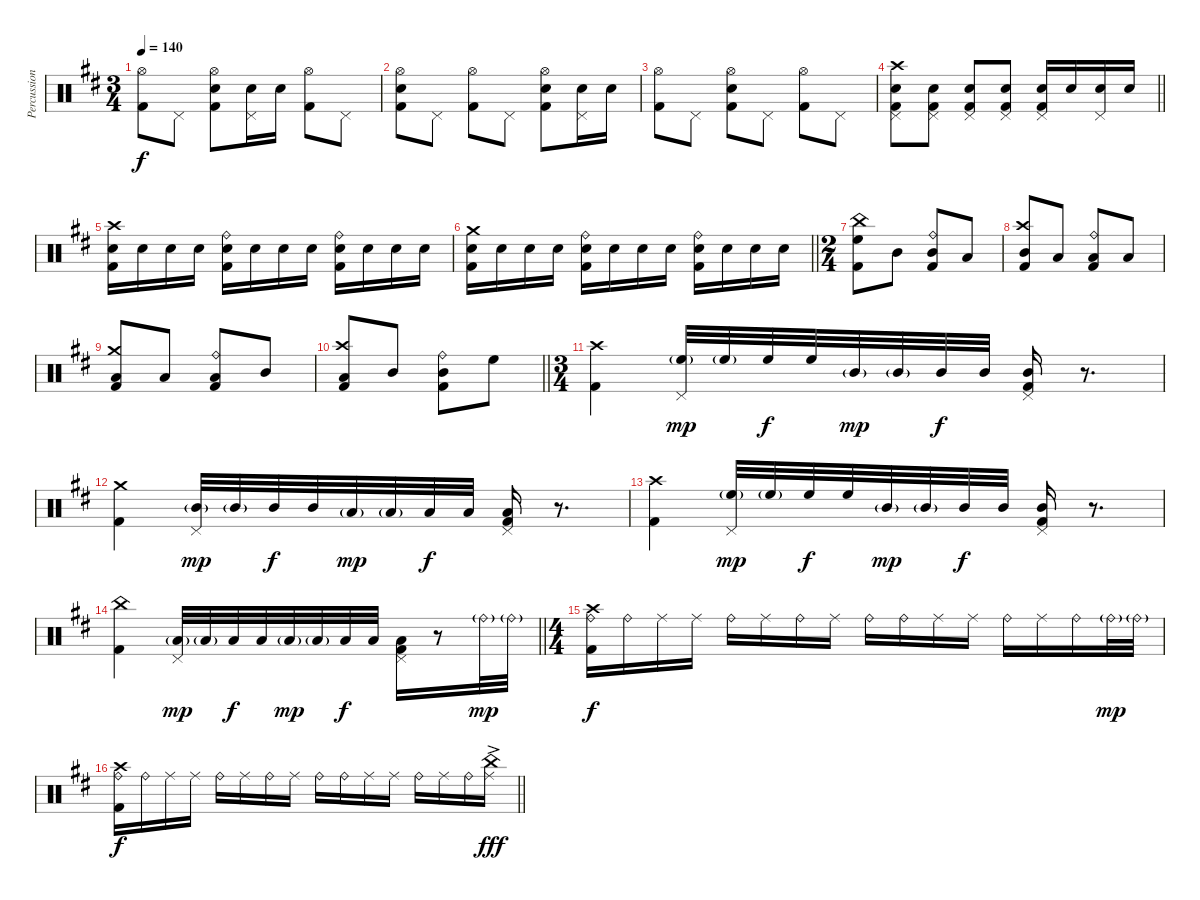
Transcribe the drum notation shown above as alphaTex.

\track ("Percussions" "Percussion") {instrument percussion}
\staff {score}
\articulation defaults
\ts (3 4)
\tempo 140
\clef neutral
\ks d
("Hi-Hat (open)" "Kick (hit) 2").8{dy f} "Pedal Hi-Hat (hit)".8 ("Hi-Hat (open)" "Snare (hit) 2" "Kick (hit) 2").8 ("Pedal Hi-Hat (hit)" "Snare (hit) 2").16 "Snare (hit) 2".16 ("Hi-Hat (open)" "Kick (hit) 2").8 "Pedal Hi-Hat (hit)".8 |
("Hi-Hat (open)" "Snare (hit) 2" "Kick (hit) 2").8 "Pedal Hi-Hat (hit)".8 ("Hi-Hat (open)" "Kick (hit) 2").8 "Pedal Hi-Hat (hit)".8 ("Hi-Hat (open)" "Snare (hit) 2" "Kick (hit) 2").8 ("Pedal Hi-Hat (hit)" "Snare (hit) 2").16 "Snare (hit) 2".16 |
("Hi-Hat (open)" "Kick (hit) 2").8 "Pedal Hi-Hat (hit)".8 ("Hi-Hat (open)" "Snare (hit) 2" "Kick (hit) 2").8 "Pedal Hi-Hat (hit)".8 ("Hi-Hat (open)" "Kick (hit) 2").8 "Pedal Hi-Hat (hit)".8 |
\barLineRight lightlight
("Pedal Hi-Hat (hit)" "Crash high (hit)" "Snare (hit) 2" "Kick (hit) 2").8{volume 13 balance 8} ("Pedal Hi-Hat (hit)" "Snare (hit) 2" "Kick (hit) 2").8 ("Pedal Hi-Hat (hit)" "Snare (hit) 2" "Kick (hit) 2").8 ("Pedal Hi-Hat (hit)" "Snare (hit) 2" "Kick (hit) 2").8 ("Pedal Hi-Hat (hit)" "Snare (hit) 2" "Kick (hit) 2").16 "Snare (hit) 2".16 ("Pedal Hi-Hat (hit)" "Snare (hit) 2").16 "Snare (hit) 2".16 |
("Crash high (hit)" "Snare (hit) 2" "Kick (hit) 2").16{volume 14 balance 8} "Snare (hit) 2".16 "Snare (hit) 2".16 "Snare (hit) 2".16 ("Ride (bell)" "Snare (hit) 2" "Kick (hit) 2").16 "Snare (hit) 2".16 "Snare (hit) 2".16 "Snare (hit) 2".16 ("Ride (bell)" "Snare (hit) 2" "Kick (hit) 2").16 "Snare (hit) 2".16 "Snare (hit) 2".16 "Snare (hit) 2".16 |
\barLineRight lightlight
("Crash medium (hit)" "Snare (hit) 2" "Kick (hit) 2").16 "Snare (hit) 2".16 "Snare (hit) 2".16 "Snare (hit) 2".16 ("Ride (bell)" "Snare (hit) 2" "Kick (hit) 2").16 "Snare (hit) 2".16 "Snare (hit) 2".16 "Snare (hit) 2".16 ("Ride (bell)" "Snare (hit) 2" "Kick (hit) 2").16 "Snare (hit) 2".16 "Snare (hit) 2".16 "Snare (hit) 2".16 |
\ts (2 4)
("China (hit)" "High Floor Tom (hit)" "Kick (hit) 2").8{volume 14 balance 8} "Mid Tom (hit)".8 ("Ride (bell)" "Mid Tom (hit)" "Kick (hit) 2").8 "Low Tom (hit)".8 |
("Crash high (hit)" "Mid Tom (hit)" "Kick (hit) 2").8 "Low Tom (hit)".8 ("Ride (bell)" "Low Tom (hit)" "Kick (hit) 2").8 "Low Floor Tom (hit)".8 |
("Crash medium (hit)" "Low Floor Tom (hit)" "Kick (hit) 2").8 "Low Tom (hit)".8 ("Ride (bell)" "Low Tom (hit)" "Kick (hit) 2").8 "Mid Tom (hit)".8 |
\barLineRight lightlight
("Crash high (hit)" "Low Tom (hit)" "Kick (hit) 2").8 "Mid Tom (hit)".8 ("Ride (bell)" "Mid Tom (hit)" "Kick (hit) 2").8 "High Floor Tom (hit)".8 |
\ts (3 4)
("Crash high (hit)" "Kick (hit) 2").4{volume 15 balance 8} ("Pedal Hi-Hat (hit)" "High Floor Tom (hit)"{g}).32{dy mp} "High Floor Tom (hit)"{g}.32 "High Floor Tom (hit)".32{dy f} "High Floor Tom (hit)".32 "Mid Tom (hit)"{g}.32{dy mp} "Mid Tom (hit)"{g}.32 "Mid Tom (hit)".32{dy f} "Mid Tom (hit)".32 ("Pedal Hi-Hat (hit)" "Mid Tom (hit)" "Kick (hit) 2").16 r.8{d} |
("Crash medium (hit)" "Kick (hit) 2").4 ("Pedal Hi-Hat (hit)" "Mid Tom (hit)"{g}).32{dy mp} "Mid Tom (hit)"{g}.32 "Mid Tom (hit)".32{dy f} "Mid Tom (hit)".32 "Low Tom (hit)"{g}.32{dy mp} "Low Tom (hit)"{g}.32 "Low Tom (hit)".32{dy f} "Low Tom (hit)".32 ("Pedal Hi-Hat (hit)" "Low Tom (hit)" "Kick (hit) 2").16 r.8{d} |
("Crash high (hit)" "Kick (hit) 2").4 ("Pedal Hi-Hat (hit)" "High Floor Tom (hit)"{g}).32{dy mp} "High Floor Tom (hit)"{g}.32 "High Floor Tom (hit)".32{dy f} "High Floor Tom (hit)".32 "Mid Tom (hit)"{g}.32{dy mp} "Mid Tom (hit)"{g}.32 "Mid Tom (hit)".32{dy f} "Mid Tom (hit)".32 ("Pedal Hi-Hat (hit)" "Mid Tom (hit)" "Kick (hit) 2").16 r.8{d} |
\barLineRight lightlight
("China (hit)" "Kick (hit) 2").4{volume 16 balance 8} ("Pedal Hi-Hat (hit)" "Low Tom (hit)"{g}).32{dy mp} "Low Tom (hit)"{g}.32 "Low Tom (hit)".32{dy f} "Low Tom (hit)".32 "Low Floor Tom (hit)"{g}.32{dy mp} "Low Floor Tom (hit)"{g}.32 "Low Floor Tom (hit)".32{dy f} "Low Floor Tom (hit)".32 ("Pedal Hi-Hat (hit)" "Low Floor Tom (hit)" "Kick (hit) 2").16 r.8 "Ride (bell)"{g}.32{dy mp} "Ride (bell)"{g}.32 |
\ts (4 4)
("Crash high (hit)" "Ride (bell)" "Kick (hit) 2").16{dy f volume 8 balance 8} "Ride (bell)".16 "Ride (middle)".16 "Ride (middle)".16 "Ride (bell)".16 "Ride (middle)".16 "Ride (bell)".16 "Ride (middle)".16 "Ride (bell)".16 "Ride (bell)".16 "Ride (middle)".16 "Ride (middle)".16 "Ride (bell)".16 "Ride (middle)".16 "Ride (bell)".16 "Ride (bell)"{g}.32{dy mp} "Ride (bell)"{g}.32 |
\barLineRight lightlight
("Crash high (hit)" "Ride (bell)" "Kick (hit) 2").16{dy f volume 6 balance 8} "Ride (bell)".16 "Ride (middle)".16 "Ride (middle)".16 "Ride (bell)".16 "Ride (middle)".16 "Ride (bell)".16 "Ride (middle)".16 "Ride (bell)".16 "Ride (bell)".16 "Ride (middle)".16 "Ride (middle)".16 "Ride (bell)".16 "Ride (middle)".16 "Ride (bell)".16 ("China (hit)"{ac} "Ride (middle)"{ac}).16{dy fff}
